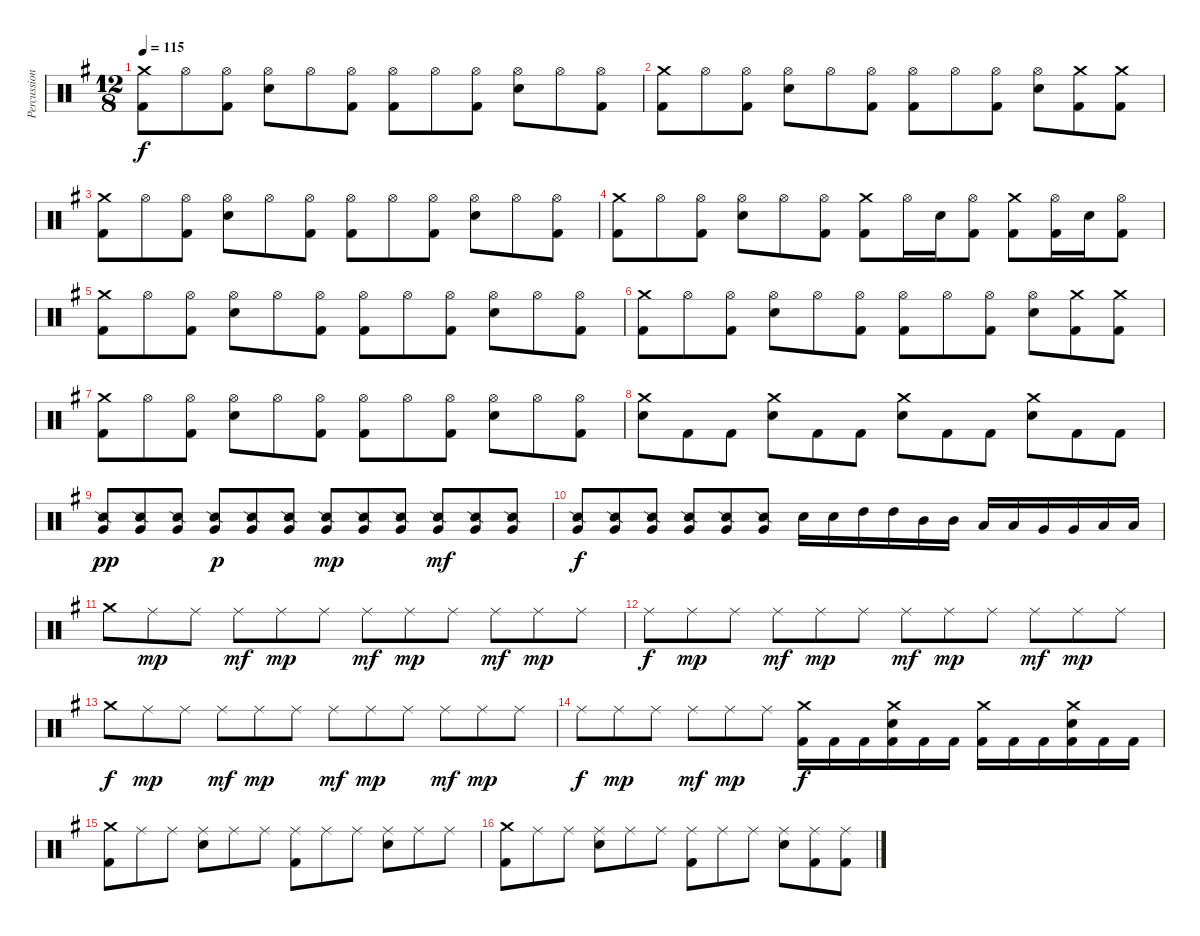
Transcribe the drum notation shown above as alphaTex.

\track ("Percussion" "Percussion") {instrument percussion}
\staff {score}
\articulation defaults
\ts (12 8)
\tempo 115
\clef neutral
\ks g
("Crash medium (hit)" "Kick (hit) 2").8{dy f} "Hi-Hat (open)".8 ("Hi-Hat (open)" "Kick (hit) 2").8 ("Hi-Hat (open)" "Snare (hit) 2").8 "Hi-Hat (open)".8 ("Hi-Hat (open)" "Kick (hit) 2").8 ("Hi-Hat (open)" "Kick (hit) 2").8 "Hi-Hat (open)".8 ("Hi-Hat (open)" "Kick (hit) 2").8 ("Hi-Hat (open)" "Snare (hit) 2").8 "Hi-Hat (open)".8 ("Hi-Hat (open)" "Kick (hit) 2").8 |
("Crash medium (hit)" "Kick (hit) 2").8 "Hi-Hat (open)".8 ("Hi-Hat (open)" "Kick (hit) 2").8 ("Hi-Hat (open)" "Snare (hit) 2").8 "Hi-Hat (open)".8 ("Hi-Hat (open)" "Kick (hit) 2").8 ("Hi-Hat (open)" "Kick (hit) 2").8 "Hi-Hat (open)".8 ("Hi-Hat (open)" "Kick (hit) 2").8 ("Hi-Hat (open)" "Snare (hit) 2").8 ("Crash medium (hit)" "Kick (hit) 2").8 ("Crash medium (hit)" "Kick (hit) 2").8 |
("Crash medium (hit)" "Kick (hit) 2").8 "Hi-Hat (open)".8 ("Hi-Hat (open)" "Kick (hit) 2").8 ("Hi-Hat (open)" "Snare (hit) 2").8 "Hi-Hat (open)".8 ("Hi-Hat (open)" "Kick (hit) 2").8 ("Hi-Hat (open)" "Kick (hit) 2").8 "Hi-Hat (open)".8 ("Hi-Hat (open)" "Kick (hit) 2").8 ("Hi-Hat (open)" "Snare (hit) 2").8 "Hi-Hat (open)".8 ("Hi-Hat (open)" "Kick (hit) 2").8 |
("Crash medium (hit)" "Kick (hit) 2").8 "Hi-Hat (open)".8 ("Hi-Hat (open)" "Kick (hit) 2").8 ("Hi-Hat (open)" "Snare (hit) 2").8 "Hi-Hat (open)".8 ("Hi-Hat (open)" "Kick (hit) 2").8 ("Crash medium (hit)" "Kick (hit) 2").8 "Hi-Hat (open)".16 "Snare (hit) 2".16 ("Hi-Hat (open)" "Kick (hit) 2").8 ("Crash medium (hit)" "Kick (hit) 2").8 ("Hi-Hat (open)" "Kick (hit) 2").16 "Snare (hit) 2".16 ("Hi-Hat (open)" "Kick (hit) 2").8 |
("Crash medium (hit)" "Kick (hit) 2").8 "Hi-Hat (open)".8 ("Hi-Hat (open)" "Kick (hit) 2").8 ("Hi-Hat (open)" "Snare (hit) 2").8 "Hi-Hat (open)".8 ("Hi-Hat (open)" "Kick (hit) 2").8 ("Hi-Hat (open)" "Kick (hit) 2").8 "Hi-Hat (open)".8 ("Hi-Hat (open)" "Kick (hit) 2").8 ("Hi-Hat (open)" "Snare (hit) 2").8 "Hi-Hat (open)".8 ("Hi-Hat (open)" "Kick (hit) 2").8 |
("Crash medium (hit)" "Kick (hit) 2").8 "Hi-Hat (open)".8 ("Hi-Hat (open)" "Kick (hit) 2").8 ("Hi-Hat (open)" "Snare (hit) 2").8 "Hi-Hat (open)".8 ("Hi-Hat (open)" "Kick (hit) 2").8 ("Hi-Hat (open)" "Kick (hit) 2").8 "Hi-Hat (open)".8 ("Hi-Hat (open)" "Kick (hit) 2").8 ("Hi-Hat (open)" "Snare (hit) 2").8 ("Crash medium (hit)" "Kick (hit) 2").8 ("Crash medium (hit)" "Kick (hit) 2").8 |
("Crash medium (hit)" "Kick (hit) 2").8 "Hi-Hat (open)".8 ("Hi-Hat (open)" "Kick (hit) 2").8 ("Hi-Hat (open)" "Snare (hit) 2").8 "Hi-Hat (open)".8 ("Hi-Hat (open)" "Kick (hit) 2").8 ("Hi-Hat (open)" "Kick (hit) 2").8 "Hi-Hat (open)".8 ("Hi-Hat (open)" "Kick (hit) 2").8 ("Hi-Hat (open)" "Snare (hit) 2").8 "Hi-Hat (open)".8 ("Hi-Hat (open)" "Kick (hit) 2").8 |
("Crash medium (hit)" "Snare (hit) 2").8 "Kick (hit) 2".8 "Kick (hit) 2".8 ("Crash medium (hit)" "Snare (hit) 2").8 "Kick (hit) 2".8 "Kick (hit) 2".8 ("Crash medium (hit)" "Snare (hit) 2").8 "Kick (hit) 2".8 "Kick (hit) 2".8 ("Crash medium (hit)" "Snare (hit) 2").8 "Kick (hit) 2".8 "Kick (hit) 2".8 |
("Snare (side stick) 2" "Very Low Tom (hit)").8{dy pp} ("Snare (side stick) 2" "Very Low Tom (hit)").8 ("Snare (side stick) 2" "Very Low Tom (hit)").8 ("Snare (side stick) 2" "Very Low Tom (hit)").8{dy p} ("Snare (side stick) 2" "Very Low Tom (hit)").8 ("Snare (side stick) 2" "Very Low Tom (hit)").8 ("Snare (side stick) 2" "Very Low Tom (hit)").8{dy mp} ("Snare (side stick) 2" "Very Low Tom (hit)").8 ("Snare (side stick) 2" "Very Low Tom (hit)").8 ("Snare (side stick) 2" "Very Low Tom (hit)").8{dy mf} ("Snare (side stick) 2" "Very Low Tom (hit)").8 ("Snare (side stick) 2" "Very Low Tom (hit)").8 |
("Snare (side stick) 2" "Very Low Tom (hit)").8{dy f} ("Snare (side stick) 2" "Very Low Tom (hit)").8 ("Snare (side stick) 2" "Very Low Tom (hit)").8 ("Snare (side stick) 2" "Very Low Tom (hit)").8 ("Snare (side stick) 2" "Very Low Tom (hit)").8 ("Snare (side stick) 2" "Very Low Tom (hit)").8 "Snare (hit) 2".16 "Snare (hit) 2".16 "High Tom (hit)".16 "High Tom (hit)".16 "Mid Tom (hit)".16 "Mid Tom (hit)".16 "Low Tom (hit)".16 "Low Tom (hit)".16 "Very Low Tom (hit)".16 "Very Low Tom (hit)".16 "Low Floor Tom (hit)".16 "Low Floor Tom (hit)".16 |
"Crash medium (hit)".8 "Ride (middle)".8{dy mp} "Ride (middle)".8 "Ride (middle)".8{dy mf} "Ride (middle)".8{dy mp} "Ride (middle)".8 "Ride (middle)".8{dy mf} "Ride (middle)".8{dy mp} "Ride (middle)".8 "Ride (middle)".8{dy mf} "Ride (middle)".8{dy mp} "Ride (middle)".8 |
"Ride (middle)".8{dy f} "Ride (middle)".8{dy mp} "Ride (middle)".8 "Ride (middle)".8{dy mf} "Ride (middle)".8{dy mp} "Ride (middle)".8 "Ride (middle)".8{dy mf} "Ride (middle)".8{dy mp} "Ride (middle)".8 "Ride (middle)".8{dy mf} "Ride (middle)".8{dy mp} "Ride (middle)".8 |
"Crash medium (hit)".8{dy f} "Ride (middle)".8{dy mp} "Ride (middle)".8 "Ride (middle)".8{dy mf} "Ride (middle)".8{dy mp} "Ride (middle)".8 "Ride (middle)".8{dy mf} "Ride (middle)".8{dy mp} "Ride (middle)".8 "Ride (middle)".8{dy mf} "Ride (middle)".8{dy mp} "Ride (middle)".8 |
"Ride (middle)".8{dy f} "Ride (middle)".8{dy mp} "Ride (middle)".8 "Ride (middle)".8{dy mf} "Ride (middle)".8{dy mp} "Ride (middle)".8 ("Crash medium (hit)" "Kick (hit) 2").16{dy f} "Kick (hit) 2".16 "Kick (hit) 2".16 ("Crash medium (hit)" "Snare (hit) 2" "Kick (hit) 2").16 "Kick (hit) 2".16 "Kick (hit) 2".16 ("Crash medium (hit)" "Kick (hit) 2").16 "Kick (hit) 2".16 "Kick (hit) 2".16 ("Crash medium (hit)" "Snare (hit) 2" "Kick (hit) 2").16 "Kick (hit) 2".16 "Kick (hit) 2".16 |
("Crash medium (hit)" "Kick (hit) 2").8 "Ride (middle)".8 "Ride (middle)".8 ("Ride (middle)" "Snare (hit) 2").8 "Ride (middle)".8 "Ride (middle)".8 ("Ride (middle)" "Kick (hit) 2").8 "Ride (middle)".8 "Ride (middle)".8 ("Ride (middle)" "Snare (hit) 2").8 "Ride (middle)".8 "Ride (middle)".8 |
("Crash medium (hit)" "Kick (hit) 2").8 "Ride (middle)".8 "Ride (middle)".8 ("Ride (middle)" "Snare (hit) 2").8 "Ride (middle)".8 "Ride (middle)".8 ("Ride (middle)" "Kick (hit) 2").8 "Ride (middle)".8 "Ride (middle)".8 ("Ride (middle)" "Snare (hit) 2").8 ("Ride (middle)" "Kick (hit) 2").8 ("Ride (middle)" "Kick (hit) 2").8
